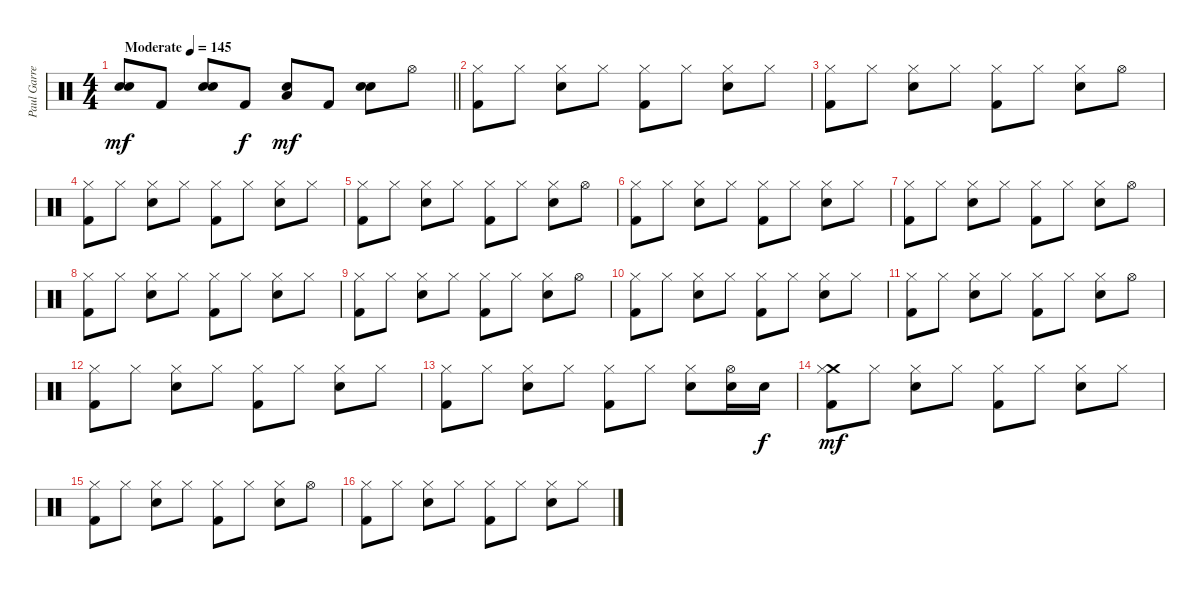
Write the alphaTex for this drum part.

\track ("Paul Garred (Percussion)" "Paul Garre") {instrument percussion}
\staff {score}
\articulation defaults
\ts (4 4)
\tempo (145 "Moderate")
\clef neutral
\barLineRight lightlight
\ks c
("Snare (hit) 2" "Snare (hit) 2").8{dy mf} "Kick (hit) 2".8 ("Snare (hit) 2" "Snare (hit) 2").8 "Kick (hit) 2".8{dy f} ("Low Tom (hit)" "Snare (hit) 2").8{dy mf} "Kick (hit) 2".8 ("Snare (hit) 2" "Snare (hit) 2").8 "Hi-Hat (open)".8 |
("Hi-Hat (closed)" "Kick (hit) 2").8 "Hi-Hat (closed)".8 ("Hi-Hat (closed)" "Snare (hit) 2").8 "Hi-Hat (closed)".8 ("Hi-Hat (closed)" "Kick (hit) 2").8 "Hi-Hat (closed)".8 ("Hi-Hat (closed)" "Snare (hit) 2").8 "Hi-Hat (closed)".8 |
("Hi-Hat (closed)" "Kick (hit) 2").8 "Hi-Hat (closed)".8 ("Hi-Hat (closed)" "Snare (hit) 2").8 "Hi-Hat (closed)".8 ("Hi-Hat (closed)" "Kick (hit) 2").8 "Hi-Hat (closed)".8 ("Hi-Hat (closed)" "Snare (hit) 2").8 "Hi-Hat (open)".8 |
("Hi-Hat (closed)" "Kick (hit) 2").8 "Hi-Hat (closed)".8 ("Hi-Hat (closed)" "Snare (hit) 2").8 "Hi-Hat (closed)".8 ("Hi-Hat (closed)" "Kick (hit) 2").8 "Hi-Hat (closed)".8 ("Hi-Hat (closed)" "Snare (hit) 2").8 "Hi-Hat (closed)".8 |
("Hi-Hat (closed)" "Kick (hit) 2").8 "Hi-Hat (closed)".8 ("Hi-Hat (closed)" "Snare (hit) 2").8 "Hi-Hat (closed)".8 ("Hi-Hat (closed)" "Kick (hit) 2").8 "Hi-Hat (closed)".8 ("Hi-Hat (closed)" "Snare (hit) 2").8 "Hi-Hat (open)".8 |
("Hi-Hat (closed)" "Kick (hit) 2").8 "Hi-Hat (closed)".8 ("Hi-Hat (closed)" "Snare (hit) 2").8 "Hi-Hat (closed)".8 ("Hi-Hat (closed)" "Kick (hit) 2").8 "Hi-Hat (closed)".8 ("Hi-Hat (closed)" "Snare (hit) 2").8 "Hi-Hat (closed)".8 |
("Hi-Hat (closed)" "Kick (hit) 2").8 "Hi-Hat (closed)".8 ("Hi-Hat (closed)" "Snare (hit) 2").8 "Hi-Hat (closed)".8 ("Hi-Hat (closed)" "Kick (hit) 2").8 "Hi-Hat (closed)".8 ("Hi-Hat (closed)" "Snare (hit) 2").8 "Hi-Hat (open)".8 |
("Hi-Hat (closed)" "Kick (hit) 2").8 "Hi-Hat (closed)".8 ("Hi-Hat (closed)" "Snare (hit) 2").8 "Hi-Hat (closed)".8 ("Hi-Hat (closed)" "Kick (hit) 2").8 "Hi-Hat (closed)".8 ("Hi-Hat (closed)" "Snare (hit) 2").8 "Hi-Hat (closed)".8 |
("Hi-Hat (closed)" "Kick (hit) 2").8 "Hi-Hat (closed)".8 ("Hi-Hat (closed)" "Snare (hit) 2").8 "Hi-Hat (closed)".8 ("Hi-Hat (closed)" "Kick (hit) 2").8 "Hi-Hat (closed)".8 ("Hi-Hat (closed)" "Snare (hit) 2").8 "Hi-Hat (open)".8 |
("Hi-Hat (closed)" "Kick (hit) 2").8 "Hi-Hat (closed)".8 ("Hi-Hat (closed)" "Snare (hit) 2").8 "Hi-Hat (closed)".8 ("Hi-Hat (closed)" "Kick (hit) 2").8 "Hi-Hat (closed)".8 ("Hi-Hat (closed)" "Snare (hit) 2").8 "Hi-Hat (closed)".8 |
("Hi-Hat (closed)" "Kick (hit) 2").8 "Hi-Hat (closed)".8 ("Hi-Hat (closed)" "Snare (hit) 2").8 "Hi-Hat (closed)".8 ("Hi-Hat (closed)" "Kick (hit) 2").8 "Hi-Hat (closed)".8 ("Hi-Hat (closed)" "Snare (hit) 2").8 "Hi-Hat (open)".8 |
("Hi-Hat (closed)" "Kick (hit) 2").8 "Hi-Hat (closed)".8 ("Hi-Hat (closed)" "Snare (hit) 2").8 "Hi-Hat (closed)".8 ("Hi-Hat (closed)" "Kick (hit) 2").8 "Hi-Hat (closed)".8 ("Hi-Hat (closed)" "Snare (hit) 2").8 "Hi-Hat (closed)".8 |
("Hi-Hat (closed)" "Kick (hit) 2").8 "Hi-Hat (closed)".8 ("Hi-Hat (closed)" "Snare (hit) 2").8 "Hi-Hat (closed)".8 ("Hi-Hat (closed)" "Kick (hit) 2").8 "Hi-Hat (closed)".8 ("Hi-Hat (closed)" "Snare (hit) 2").8 ("Hi-Hat (open)" "Snare (hit) 2").16 "Snare (hit) 2".16{dy f} |
("Crash medium (hit)" "Hi-Hat (closed)" "Kick (hit) 2").8{dy mf} "Hi-Hat (closed)".8 ("Hi-Hat (closed)" "Snare (hit) 2").8 "Hi-Hat (closed)".8 ("Hi-Hat (closed)" "Kick (hit) 2").8 "Hi-Hat (closed)".8 ("Hi-Hat (closed)" "Snare (hit) 2").8 "Hi-Hat (closed)".8 |
("Hi-Hat (closed)" "Kick (hit) 2").8 "Hi-Hat (closed)".8 ("Hi-Hat (closed)" "Snare (hit) 2").8 "Hi-Hat (closed)".8 ("Hi-Hat (closed)" "Kick (hit) 2").8 "Hi-Hat (closed)".8 ("Hi-Hat (closed)" "Snare (hit) 2").8 "Hi-Hat (open)".8 |
("Hi-Hat (closed)" "Kick (hit) 2").8 "Hi-Hat (closed)".8 ("Hi-Hat (closed)" "Snare (hit) 2").8 "Hi-Hat (closed)".8 ("Hi-Hat (closed)" "Kick (hit) 2").8 "Hi-Hat (closed)".8 ("Hi-Hat (closed)" "Snare (hit) 2").8 "Hi-Hat (closed)".8
